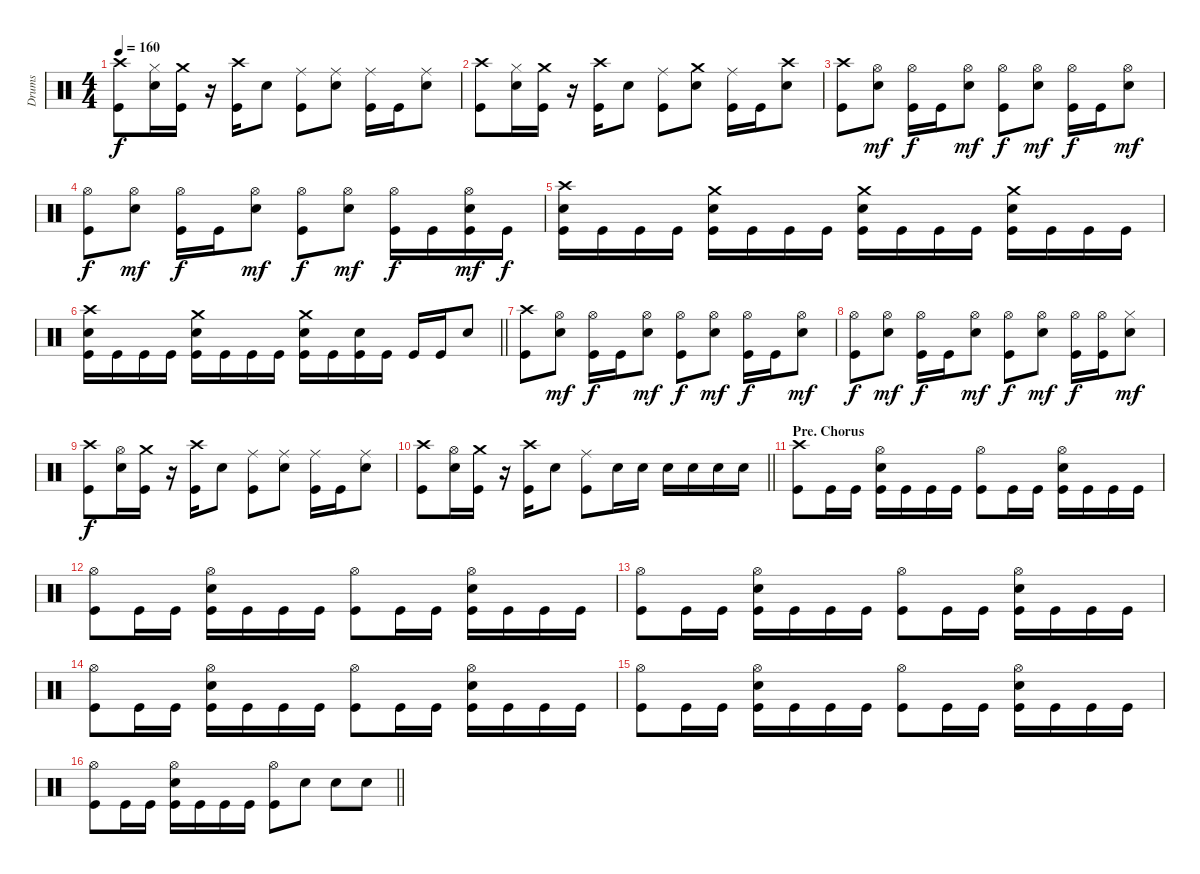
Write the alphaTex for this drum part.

\track ("Drums" "Drums") {instrument percussion}
\staff {score}
\articulation defaults
\ts (4 4)
\tempo 160
\clef neutral
\ks c
("Crash high (hit)" "Kick (hit)").8{dy f} ("Hi-Hat (closed)" "Snare (hit) 2").16 ("Crash medium (hit)" "Kick (hit)").16 r.16 ("Crash high (hit)" "Kick (hit)").16 "Snare (hit) 2".8 ("Ride (middle)" "Kick (hit)").8 ("Ride (middle)" "Snare (hit) 2").8 ("Ride (middle)" "Kick (hit)").16 "Kick (hit)".16 ("Ride (middle)" "Snare (hit) 2").8 |
("Crash high (hit)" "Kick (hit)").8 ("Hi-Hat (closed)" "Snare (hit) 2").16 ("Crash medium (hit)" "Kick (hit)").16 r.16 ("Crash high (hit)" "Kick (hit)").16 "Snare (hit) 2".8 ("Ride (middle)" "Kick (hit)").8 ("Crash medium (hit)" "Snare (hit) 2").8 ("Ride (middle)" "Kick (hit)").16 "Kick (hit)".16 ("Crash high (hit)" "Snare (hit) 2").8 |
("Crash high (hit)" "Kick (hit)").8 ("Hi-Hat (open)" "Snare (hit) 2").8{dy mf} ("Hi-Hat (open)" "Kick (hit)").16{dy f} "Kick (hit)".16 ("Hi-Hat (open)" "Snare (hit) 2").8{dy mf} ("Hi-Hat (open)" "Kick (hit)").8{dy f} ("Hi-Hat (open)" "Snare (hit) 2").8{dy mf} ("Hi-Hat (open)" "Kick (hit)").16{dy f} "Kick (hit)".16 ("Hi-Hat (open)" "Snare (hit) 2").8{dy mf} |
("Hi-Hat (open)" "Kick (hit)").8{dy f} ("Hi-Hat (open)" "Snare (hit) 2").8{dy mf} ("Hi-Hat (open)" "Kick (hit)").16{dy f} "Kick (hit)".16 ("Hi-Hat (open)" "Snare (hit) 2").8{dy mf} ("Hi-Hat (open)" "Kick (hit)").8{dy f} ("Hi-Hat (open)" "Snare (hit) 2").8{dy mf} ("Hi-Hat (open)" "Kick (hit)").16{dy f} "Kick (hit)".16 ("Hi-Hat (open)" "Snare (hit) 2" "Kick (hit)").16{dy mf} "Kick (hit)".16{dy f} |
("Crash high (hit)" "Snare (hit) 2" "Kick (hit)").16 "Kick (hit)".16 "Kick (hit)".16 "Kick (hit)".16 ("Crash medium (hit)" "Snare (hit) 2" "Kick (hit)").16 "Kick (hit)".16 "Kick (hit)".16 "Kick (hit)".16 ("Crash medium (hit)" "Snare (hit) 2" "Kick (hit)").16 "Kick (hit)".16 "Kick (hit)".16 "Kick (hit)".16 ("Crash medium (hit)" "Snare (hit) 2" "Kick (hit)").16 "Kick (hit)".16 "Kick (hit)".16 "Kick (hit)".16 |
\barLineRight lightlight
("Crash high (hit)" "Snare (hit) 2" "Kick (hit)").16 "Kick (hit)".16 "Kick (hit)".16 "Kick (hit)".16 ("Crash medium (hit)" "Snare (hit) 2" "Kick (hit)").16 "Kick (hit)".16 "Kick (hit)".16 "Kick (hit)".16 ("Crash medium (hit)" "Snare (hit) 2" "Kick (hit)").16 "Kick (hit)".16 ("Snare (hit) 2" "Kick (hit)").16 "Kick (hit)".16 "Kick (hit)".16 "Kick (hit)".16 "Snare (hit) 2".8 |
("Crash high (hit)" "Kick (hit)").8 ("Hi-Hat (open)" "Snare (hit) 2").8{dy mf} ("Hi-Hat (open)" "Kick (hit)").16{dy f} "Kick (hit)".16 ("Hi-Hat (open)" "Snare (hit) 2").8{dy mf} ("Hi-Hat (open)" "Kick (hit)").8{dy f} ("Hi-Hat (open)" "Snare (hit) 2").8{dy mf} ("Hi-Hat (open)" "Kick (hit)").16{dy f} "Kick (hit)".16 ("Hi-Hat (open)" "Snare (hit) 2").8{dy mf} |
("Hi-Hat (open)" "Kick (hit)").8{dy f} ("Hi-Hat (open)" "Snare (hit) 2").8{dy mf} ("Hi-Hat (open)" "Kick (hit)").16{dy f} "Kick (hit)".16 ("Hi-Hat (open)" "Snare (hit) 2").8{dy mf} ("Hi-Hat (open)" "Kick (hit)").8{dy f} ("Hi-Hat (open)" "Snare (hit) 2").8{dy mf} ("Hi-Hat (open)" "Kick (hit)").16{dy f} ("Hi-Hat (open)" "Kick (hit)").16 ("Hi-Hat (closed)" "Snare (hit) 2").8{dy mf} |
("Crash high (hit)" "Kick (hit)").8{dy f} ("Hi-Hat (open)" "Snare (hit) 2").16 ("Crash medium (hit)" "Kick (hit)").16 r.16 ("Crash high (hit)" "Kick (hit)").16 "Snare (hit) 2".8 ("Ride (middle)" "Kick (hit)").8 ("Ride (middle)" "Snare (hit) 2").8 ("Ride (middle)" "Kick (hit)").16 "Kick (hit)".16 ("Ride (middle)" "Snare (hit) 2").8 |
\barLineRight lightlight
("Crash high (hit)" "Kick (hit)").8 ("Hi-Hat (open)" "Snare (hit) 2").16 ("Crash medium (hit)" "Kick (hit)").16 r.16 ("Crash high (hit)" "Kick (hit)").16 "Snare (hit) 2".8 ("Ride (middle)" "Kick (hit)").8 "Snare (hit) 2".16 "Snare (hit) 2".16 "Snare (hit) 2".16 "Snare (hit) 2".16 "Snare (hit) 2".16 "Snare (hit) 2".16 |
\section ("" "Pre. Chorus")
("Crash high (hit)" "Kick (hit)").8 "Kick (hit)".16 "Kick (hit)".16 ("Hi-Hat (open)" "Snare (hit) 2" "Kick (hit)").16 "Kick (hit)".16 "Kick (hit)".16 "Kick (hit)".16 ("Hi-Hat (open)" "Kick (hit)").8 "Kick (hit)".16 "Kick (hit)".16 ("Hi-Hat (open)" "Snare (hit) 2" "Kick (hit)").16 "Kick (hit)".16 "Kick (hit)".16 "Kick (hit)".16 |
("Hi-Hat (open)" "Kick (hit)").8 "Kick (hit)".16 "Kick (hit)".16 ("Hi-Hat (open)" "Snare (hit) 2" "Kick (hit)").16 "Kick (hit)".16 "Kick (hit)".16 "Kick (hit)".16 ("Hi-Hat (open)" "Kick (hit)").8 "Kick (hit)".16 "Kick (hit)".16 ("Hi-Hat (open)" "Snare (hit) 2" "Kick (hit)").16 "Kick (hit)".16 "Kick (hit)".16 "Kick (hit)".16 |
("Hi-Hat (open)" "Kick (hit)").8 "Kick (hit)".16 "Kick (hit)".16 ("Hi-Hat (open)" "Snare (hit) 2" "Kick (hit)").16 "Kick (hit)".16 "Kick (hit)".16 "Kick (hit)".16 ("Hi-Hat (open)" "Kick (hit)").8 "Kick (hit)".16 "Kick (hit)".16 ("Hi-Hat (open)" "Snare (hit) 2" "Kick (hit)").16 "Kick (hit)".16 "Kick (hit)".16 "Kick (hit)".16 |
("Hi-Hat (open)" "Kick (hit)").8 "Kick (hit)".16 "Kick (hit)".16 ("Hi-Hat (open)" "Snare (hit) 2" "Kick (hit)").16 "Kick (hit)".16 "Kick (hit)".16 "Kick (hit)".16 ("Hi-Hat (open)" "Kick (hit)").8 "Kick (hit)".16 "Kick (hit)".16 ("Hi-Hat (open)" "Snare (hit) 2" "Kick (hit)").16 "Kick (hit)".16 "Kick (hit)".16 "Kick (hit)".16 |
("Hi-Hat (open)" "Kick (hit)").8 "Kick (hit)".16 "Kick (hit)".16 ("Hi-Hat (open)" "Snare (hit) 2" "Kick (hit)").16 "Kick (hit)".16 "Kick (hit)".16 "Kick (hit)".16 ("Hi-Hat (open)" "Kick (hit)").8 "Kick (hit)".16 "Kick (hit)".16 ("Hi-Hat (open)" "Snare (hit) 2" "Kick (hit)").16 "Kick (hit)".16 "Kick (hit)".16 "Kick (hit)".16 |
\barLineRight lightlight
("Hi-Hat (open)" "Kick (hit)").8 "Kick (hit)".16 "Kick (hit)".16 ("Hi-Hat (open)" "Snare (hit) 2" "Kick (hit)").16 "Kick (hit)".16 "Kick (hit)".16 "Kick (hit)".16 ("Hi-Hat (open)" "Kick (hit)").8 "Snare (hit) 2".8 "Snare (hit) 2".8 "Snare (hit) 2".8
